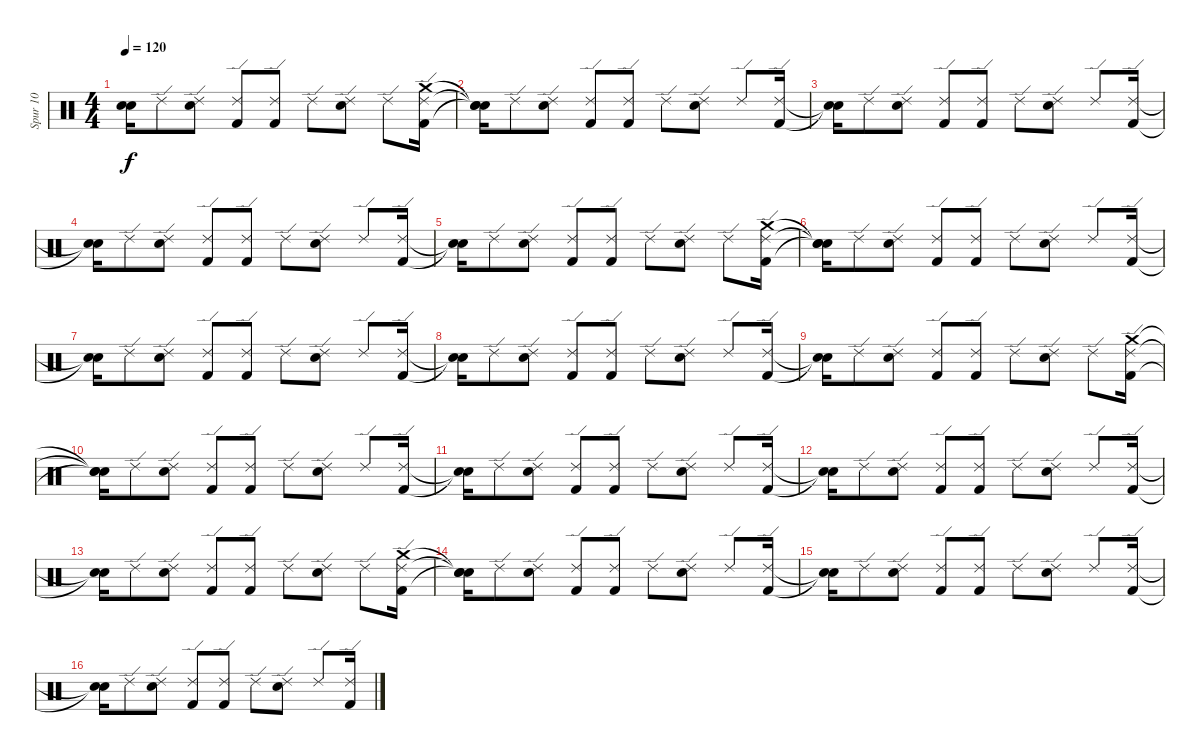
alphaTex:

\track ("Spur 10" "Spur 10") {instrument percussion}
\staff {score}
\articulation defaults
\ts (4 4)
\tempo 120
\clef neutral
\ks c
("Snare (hit)"{t} "Snare (hit)"{t}).16{dy f} "Ride (edge) 2".8 ("Electric Snare (hit)" "Ride (edge) 2").8 ("Kick (hit) 2" "Ride (edge) 2").8 ("Kick (hit) 2" "Ride (edge) 2").8 "Ride (edge) 2".8 ("Electric Snare (hit)" "Ride (edge) 2").8 "Ride (edge) 2".8 ("Kick (hit) 2" "Ride (edge) 2" "Crash medium (hit)").16 |
("Snare (hit)"{t} "Snare (hit)"{t} "Snare (hit)"{t}).16 "Ride (edge) 2".8 ("Electric Snare (hit)" "Ride (edge) 2").8 ("Kick (hit) 2" "Ride (edge) 2").8 ("Kick (hit) 2" "Ride (edge) 2").8 "Ride (edge) 2".8 ("Electric Snare (hit)" "Ride (edge) 2").8 "Ride (edge) 2".8 ("Kick (hit) 2" "Ride (edge) 2").16 |
("Snare (hit)"{t} "Snare (hit)"{t}).16 "Ride (edge) 2".8 ("Electric Snare (hit)" "Ride (edge) 2").8 ("Kick (hit) 2" "Ride (edge) 2").8 ("Kick (hit) 2" "Ride (edge) 2").8 "Ride (edge) 2".8 ("Electric Snare (hit)" "Ride (edge) 2").8 "Ride (edge) 2".8 ("Kick (hit) 2" "Ride (edge) 2").16 |
("Snare (hit)"{t} "Snare (hit)"{t}).16 "Ride (edge) 2".8 ("Electric Snare (hit)" "Ride (edge) 2").8 ("Kick (hit) 2" "Ride (edge) 2").8 ("Kick (hit) 2" "Ride (edge) 2").8 "Ride (edge) 2".8 ("Electric Snare (hit)" "Ride (edge) 2").8 "Ride (edge) 2".8 ("Kick (hit) 2" "Ride (edge) 2").16 |
("Snare (hit)"{t} "Snare (hit)"{t}).16 "Ride (edge) 2".8 ("Electric Snare (hit)" "Ride (edge) 2").8 ("Kick (hit) 2" "Ride (edge) 2").8 ("Kick (hit) 2" "Ride (edge) 2").8 "Ride (edge) 2".8 ("Electric Snare (hit)" "Ride (edge) 2").8 "Ride (edge) 2".8 ("Kick (hit) 2" "Ride (edge) 2" "Crash medium (hit)").16 |
("Snare (hit)"{t} "Snare (hit)"{t} "Snare (hit)"{t}).16 "Ride (edge) 2".8 ("Electric Snare (hit)" "Ride (edge) 2").8 ("Kick (hit) 2" "Ride (edge) 2").8 ("Kick (hit) 2" "Ride (edge) 2").8 "Ride (edge) 2".8 ("Electric Snare (hit)" "Ride (edge) 2").8 "Ride (edge) 2".8 ("Kick (hit) 2" "Ride (edge) 2").16 |
("Snare (hit)"{t} "Snare (hit)"{t}).16 "Ride (edge) 2".8 ("Electric Snare (hit)" "Ride (edge) 2").8 ("Kick (hit) 2" "Ride (edge) 2").8 ("Kick (hit) 2" "Ride (edge) 2").8 "Ride (edge) 2".8 ("Electric Snare (hit)" "Ride (edge) 2").8 "Ride (edge) 2".8 ("Kick (hit) 2" "Ride (edge) 2").16 |
("Snare (hit)"{t} "Snare (hit)"{t}).16 "Ride (edge) 2".8 ("Electric Snare (hit)" "Ride (edge) 2").8 ("Kick (hit) 2" "Ride (edge) 2").8 ("Kick (hit) 2" "Ride (edge) 2").8 "Ride (edge) 2".8 ("Electric Snare (hit)" "Ride (edge) 2").8 "Ride (edge) 2".8 ("Kick (hit) 2" "Ride (edge) 2").16 |
("Snare (hit)"{t} "Snare (hit)"{t}).16 "Ride (edge) 2".8 ("Electric Snare (hit)" "Ride (edge) 2").8 ("Kick (hit) 2" "Ride (edge) 2").8 ("Kick (hit) 2" "Ride (edge) 2").8 "Ride (edge) 2".8 ("Electric Snare (hit)" "Ride (edge) 2").8 "Ride (edge) 2".8 ("Kick (hit) 2" "Ride (edge) 2" "Crash medium (hit)").16 |
("Snare (hit)"{t} "Snare (hit)"{t} "Snare (hit)"{t}).16 "Ride (edge) 2".8 ("Electric Snare (hit)" "Ride (edge) 2").8 ("Kick (hit) 2" "Ride (edge) 2").8 ("Kick (hit) 2" "Ride (edge) 2").8 "Ride (edge) 2".8 ("Electric Snare (hit)" "Ride (edge) 2").8 "Ride (edge) 2".8 ("Kick (hit) 2" "Ride (edge) 2").16 |
("Snare (hit)"{t} "Snare (hit)"{t}).16 "Ride (edge) 2".8 ("Electric Snare (hit)" "Ride (edge) 2").8 ("Kick (hit) 2" "Ride (edge) 2").8 ("Kick (hit) 2" "Ride (edge) 2").8 "Ride (edge) 2".8 ("Electric Snare (hit)" "Ride (edge) 2").8 "Ride (edge) 2".8 ("Kick (hit) 2" "Ride (edge) 2").16 |
("Snare (hit)"{t} "Snare (hit)"{t}).16 "Ride (edge) 2".8 ("Electric Snare (hit)" "Ride (edge) 2").8 ("Kick (hit) 2" "Ride (edge) 2").8 ("Kick (hit) 2" "Ride (edge) 2").8 "Ride (edge) 2".8 ("Electric Snare (hit)" "Ride (edge) 2").8 "Ride (edge) 2".8 ("Kick (hit) 2" "Ride (edge) 2").16 |
("Snare (hit)"{t} "Snare (hit)"{t}).16 "Ride (edge) 2".8 ("Electric Snare (hit)" "Ride (edge) 2").8 ("Kick (hit) 2" "Ride (edge) 2").8 ("Kick (hit) 2" "Ride (edge) 2").8 "Ride (edge) 2".8 ("Electric Snare (hit)" "Ride (edge) 2").8 "Ride (edge) 2".8 ("Kick (hit) 2" "Ride (edge) 2" "Crash medium (hit)").16 |
("Snare (hit)"{t} "Snare (hit)"{t} "Snare (hit)"{t}).16 "Ride (edge) 2".8 ("Electric Snare (hit)" "Ride (edge) 2").8 ("Kick (hit) 2" "Ride (edge) 2").8 ("Kick (hit) 2" "Ride (edge) 2").8 "Ride (edge) 2".8 ("Electric Snare (hit)" "Ride (edge) 2").8 "Ride (edge) 2".8 ("Kick (hit) 2" "Ride (edge) 2").16 |
("Snare (hit)"{t} "Snare (hit)"{t}).16 "Ride (edge) 2".8 ("Electric Snare (hit)" "Ride (edge) 2").8 ("Kick (hit) 2" "Ride (edge) 2").8 ("Kick (hit) 2" "Ride (edge) 2").8 "Ride (edge) 2".8 ("Electric Snare (hit)" "Ride (edge) 2").8 "Ride (edge) 2".8 ("Kick (hit) 2" "Ride (edge) 2").16 |
("Snare (hit)"{t} "Snare (hit)"{t}).16 "Ride (edge) 2".8 ("Electric Snare (hit)" "Ride (edge) 2").8 ("Kick (hit) 2" "Ride (edge) 2").8 ("Kick (hit) 2" "Ride (edge) 2").8 "Ride (edge) 2".8 ("Electric Snare (hit)" "Ride (edge) 2").8 "Ride (edge) 2".8 ("Kick (hit) 2" "Ride (edge) 2").16
